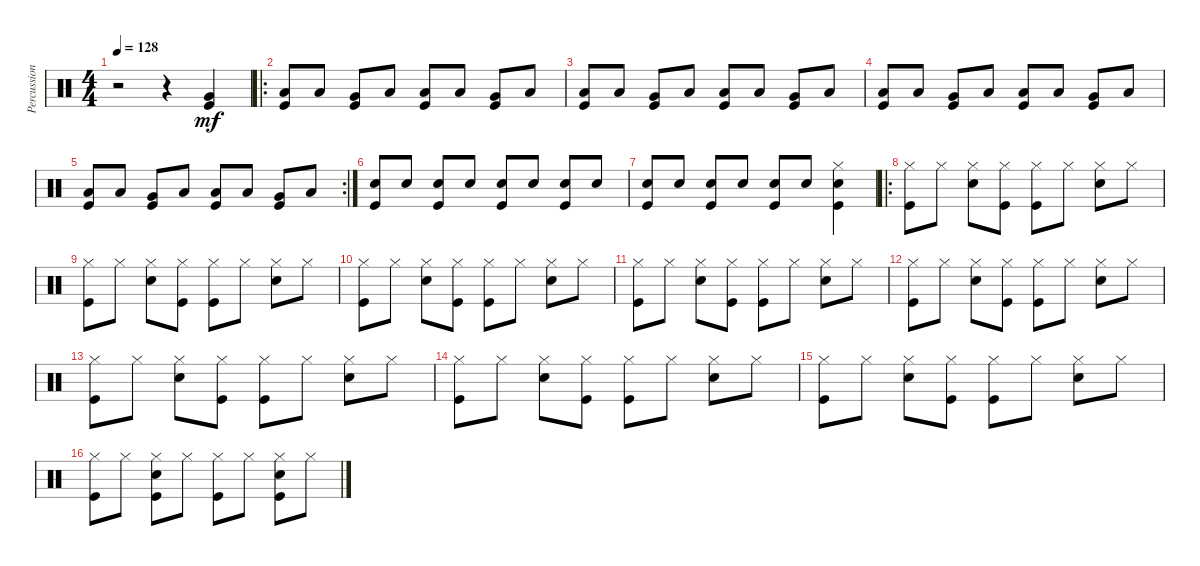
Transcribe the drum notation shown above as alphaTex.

\track ("Percussions" "Percussion") {instrument percussion}
\staff {score}
\articulation defaults
\ts (4 4)
\tempo 128
\clef neutral
\ks c
r.2{dy mf} r.4 ("Very Low Tom (hit)" "Kick (hit)").4 |
\ro
("Low Floor Tom (hit)" "Kick (hit)").8 "Low Floor Tom (hit)".8 ("Very Low Tom (hit)" "Kick (hit)").8 "Low Floor Tom (hit)".8 ("Low Floor Tom (hit)" "Kick (hit)").8 "Low Floor Tom (hit)".8 ("Very Low Tom (hit)" "Kick (hit)").8 "Low Floor Tom (hit)".8 |
("Low Floor Tom (hit)" "Kick (hit)").8 "Low Floor Tom (hit)".8 ("Very Low Tom (hit)" "Kick (hit)").8 "Low Floor Tom (hit)".8 ("Low Floor Tom (hit)" "Kick (hit)").8 "Low Floor Tom (hit)".8 ("Very Low Tom (hit)" "Kick (hit)").8 "Low Floor Tom (hit)".8 |
("Low Floor Tom (hit)" "Kick (hit)").8 "Low Floor Tom (hit)".8 ("Very Low Tom (hit)" "Kick (hit)").8 "Low Floor Tom (hit)".8 ("Low Floor Tom (hit)" "Kick (hit)").8 "Low Floor Tom (hit)".8 ("Very Low Tom (hit)" "Kick (hit)").8 "Low Floor Tom (hit)".8 |
\rc 2
("Low Floor Tom (hit)" "Kick (hit)").8 "Low Floor Tom (hit)".8 ("Very Low Tom (hit)" "Kick (hit)").8 "Low Floor Tom (hit)".8 ("Low Floor Tom (hit)" "Kick (hit)").8 "Low Floor Tom (hit)".8 ("Very Low Tom (hit)" "Kick (hit)").8 "Low Floor Tom (hit)".8 |
("Snare (hit) 2" "Kick (hit)").8 "Snare (hit) 2".8 ("Snare (hit) 2" "Kick (hit)").8 "Snare (hit) 2".8 ("Snare (hit) 2" "Kick (hit)").8 "Snare (hit) 2".8 ("Snare (hit) 2" "Kick (hit)").8 "Snare (hit) 2".8 |
("Snare (hit) 2" "Kick (hit)").8 "Snare (hit) 2".8 ("Snare (hit) 2" "Kick (hit)").8 "Snare (hit) 2".8 ("Snare (hit) 2" "Kick (hit)").8 "Snare (hit) 2".8 ("Hi-Hat (closed)" "Snare (hit) 2" "Kick (hit)").4 |
\ro
("Hi-Hat (closed)" "Kick (hit)").8 "Hi-Hat (closed)".8 ("Hi-Hat (closed)" "Snare (hit) 2").8 ("Hi-Hat (closed)" "Kick (hit)").8 ("Hi-Hat (closed)" "Kick (hit)").8 "Hi-Hat (closed)".8 ("Hi-Hat (closed)" "Snare (hit) 2").8 "Hi-Hat (closed)".8 |
("Hi-Hat (closed)" "Kick (hit)").8 "Hi-Hat (closed)".8 ("Hi-Hat (closed)" "Snare (hit) 2").8 ("Hi-Hat (closed)" "Kick (hit)").8 ("Hi-Hat (closed)" "Kick (hit)").8 "Hi-Hat (closed)".8 ("Hi-Hat (closed)" "Snare (hit) 2").8 "Hi-Hat (closed)".8 |
("Hi-Hat (closed)" "Kick (hit)").8 "Hi-Hat (closed)".8 ("Hi-Hat (closed)" "Snare (hit) 2").8 ("Hi-Hat (closed)" "Kick (hit)").8 ("Hi-Hat (closed)" "Kick (hit)").8 "Hi-Hat (closed)".8 ("Hi-Hat (closed)" "Snare (hit) 2").8 "Hi-Hat (closed)".8 |
("Hi-Hat (closed)" "Kick (hit)").8 "Hi-Hat (closed)".8 ("Hi-Hat (closed)" "Snare (hit) 2").8 ("Hi-Hat (closed)" "Kick (hit)").8 ("Hi-Hat (closed)" "Kick (hit)").8 "Hi-Hat (closed)".8 ("Hi-Hat (closed)" "Snare (hit) 2").8 "Hi-Hat (closed)".8 |
("Hi-Hat (closed)" "Kick (hit)").8 "Hi-Hat (closed)".8 ("Hi-Hat (closed)" "Snare (hit) 2").8 ("Hi-Hat (closed)" "Kick (hit)").8 ("Hi-Hat (closed)" "Kick (hit)").8 "Hi-Hat (closed)".8 ("Hi-Hat (closed)" "Snare (hit) 2").8 "Hi-Hat (closed)".8 |
("Hi-Hat (closed)" "Kick (hit)").8 "Hi-Hat (closed)".8 ("Hi-Hat (closed)" "Snare (hit) 2").8 ("Hi-Hat (closed)" "Kick (hit)").8 ("Hi-Hat (closed)" "Kick (hit)").8 "Hi-Hat (closed)".8 ("Hi-Hat (closed)" "Snare (hit) 2").8 "Hi-Hat (closed)".8 |
("Hi-Hat (closed)" "Kick (hit)").8 "Hi-Hat (closed)".8 ("Hi-Hat (closed)" "Snare (hit) 2").8 ("Hi-Hat (closed)" "Kick (hit)").8 ("Hi-Hat (closed)" "Kick (hit)").8 "Hi-Hat (closed)".8 ("Hi-Hat (closed)" "Snare (hit) 2").8 "Hi-Hat (closed)".8 |
("Hi-Hat (closed)" "Kick (hit)").8 "Hi-Hat (closed)".8 ("Hi-Hat (closed)" "Snare (hit) 2").8 ("Hi-Hat (closed)" "Kick (hit)").8 ("Hi-Hat (closed)" "Kick (hit)").8 "Hi-Hat (closed)".8 ("Hi-Hat (closed)" "Snare (hit) 2").8 "Hi-Hat (closed)".8 |
("Hi-Hat (closed)" "Kick (hit)").8 "Hi-Hat (closed)".8 ("Hi-Hat (closed)" "Snare (hit) 2" "Kick (hit)").8 "Hi-Hat (closed)".8 ("Hi-Hat (closed)" "Kick (hit)").8 "Hi-Hat (closed)".8 ("Hi-Hat (closed)" "Snare (hit) 2" "Kick (hit)").8 "Hi-Hat (closed)".8
